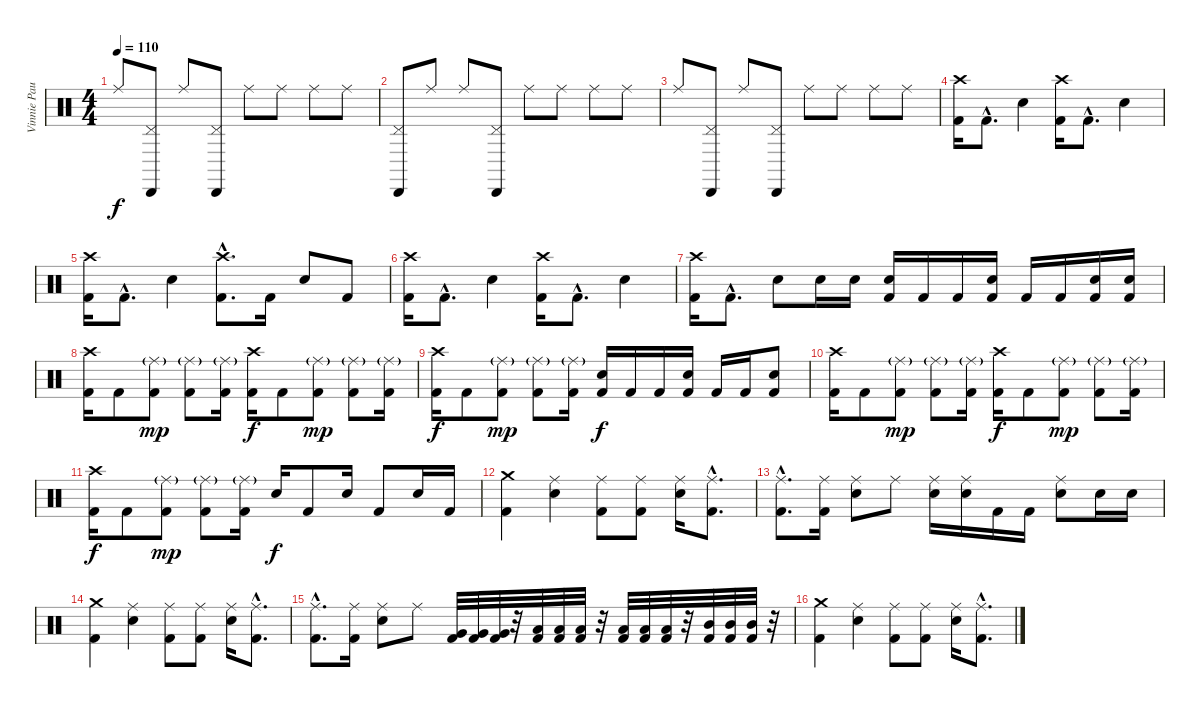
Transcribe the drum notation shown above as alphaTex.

\track ("Vinnie Paul" "Vinnie Pau") {instrument percussion}
\staff {score}
\articulation defaults
\ts (4 4)
\tempo 110
\clef neutral
\ks c "Ride (middle)".8{dy f}
("Cabasa (hit)" "Pedal Hi-Hat (hit)").8 "Ride (middle)".8 ("Cabasa (hit)" "Pedal Hi-Hat (hit)").8 "Ride (middle)".8 "Ride (middle)".8 "Ride (middle)".8 "Ride (middle)".8 |
("Cabasa (hit)" "Pedal Hi-Hat (hit)").8 "Ride (middle)".8 "Ride (middle)".8 ("Cabasa (hit)" "Pedal Hi-Hat (hit)").8 "Ride (middle)".8 "Ride (middle)".8 "Ride (middle)".8 "Ride (middle)".8 |
"Ride (middle)".8 ("Cabasa (hit)" "Pedal Hi-Hat (hit)").8 "Ride (middle)".8 ("Cabasa (hit)" "Pedal Hi-Hat (hit)").8 "Ride (middle)".8 "Ride (middle)".8 "Ride (middle)".8 "Ride (middle)".8 |
("Crash high (hit)" "Kick (hit) 2").16 "Kick (hit) 2"{hac}.8{d} "Electric Snare (hit)".4 ("Crash high (hit)" "Kick (hit) 2").16 "Kick (hit) 2"{hac}.8{d} "Electric Snare (hit)".4 |
("Crash high (hit)" "Kick (hit) 2").16 "Kick (hit) 2"{hac}.8{d} "Electric Snare (hit)".4 ("Crash high (hit)"{hac} "Kick (hit) 2"{hac}).8{d} "Kick (hit) 2".16 "Electric Snare (hit)".8 "Kick (hit) 2".8 |
("Crash high (hit)" "Kick (hit) 2").16 "Kick (hit) 2"{hac}.8{d} "Electric Snare (hit)".4 ("Crash high (hit)" "Kick (hit) 2").16 "Kick (hit) 2"{hac}.8{d} "Electric Snare (hit)".4 |
("Crash high (hit)" "Kick (hit) 2").16 "Kick (hit) 2"{hac}.8{d} "Electric Snare (hit)".8 "Electric Snare (hit)".16 "Electric Snare (hit)".16 ("Electric Snare (hit)" "Kick (hit) 2").16 "Kick (hit) 2".16 "Kick (hit) 2".16 ("Electric Snare (hit)" "Kick (hit) 2").16 "Kick (hit) 2".16 "Kick (hit) 2".16 ("Electric Snare (hit)" "Kick (hit) 2").16 ("Electric Snare (hit)" "Kick (hit) 2").16 |
("Crash high (hit)" "Kick (hit) 2").16 "Kick (hit) 2".8 ("Ride (middle)"{g} "Kick (hit) 2").8{dy mp} ("Ride (middle)"{g} "Kick (hit) 2").8 ("Ride (middle)"{g} "Kick (hit) 2").16 ("Crash high (hit)" "Kick (hit) 2").16{dy f} "Kick (hit) 2".8 ("Ride (middle)"{g} "Kick (hit) 2").8{dy mp} ("Ride (middle)"{g} "Kick (hit) 2").8 ("Ride (middle)"{g} "Kick (hit) 2").16 |
("Crash high (hit)" "Kick (hit) 2").16{dy f} "Kick (hit) 2".8 ("Ride (middle)"{g} "Kick (hit) 2").8{dy mp} ("Ride (middle)"{g} "Kick (hit) 2").8 ("Ride (middle)"{g} "Kick (hit) 2").16 ("Electric Snare (hit)" "Kick (hit) 2").16{dy f} "Kick (hit) 2".16 "Kick (hit) 2".16 ("Electric Snare (hit)" "Kick (hit) 2").16 "Kick (hit) 2".16 "Kick (hit) 2".16 ("Electric Snare (hit)" "Kick (hit) 2").8 |
("Crash high (hit)" "Kick (hit) 2").16 "Kick (hit) 2".8 ("Ride (middle)"{g} "Kick (hit) 2").8{dy mp} ("Ride (middle)"{g} "Kick (hit) 2").8 ("Ride (middle)"{g} "Kick (hit) 2").16 ("Crash high (hit)" "Kick (hit) 2").16{dy f} "Kick (hit) 2".8 ("Ride (middle)"{g} "Kick (hit) 2").8{dy mp} ("Ride (middle)"{g} "Kick (hit) 2").8 ("Ride (middle)"{g} "Kick (hit) 2").16 |
("Crash high (hit)" "Kick (hit) 2").16{dy f} "Kick (hit) 2".8 ("Ride (middle)"{g} "Kick (hit) 2").8{dy mp} ("Ride (middle)"{g} "Kick (hit) 2").8 ("Ride (middle)"{g} "Kick (hit) 2").16 "Electric Snare (hit)".16{dy f} "Kick (hit) 2".8 "Electric Snare (hit)".16 "Kick (hit) 2".8 "Electric Snare (hit)".16 "Kick (hit) 2".16 |
("Crash medium (hit)" "Kick (hit) 2").4 ("Electric Snare (hit)" "Ride (middle)").4 ("Ride (middle)" "Kick (hit) 2").8 ("Ride (middle)" "Kick (hit) 2").8 ("Electric Snare (hit)" "Ride (middle)").16 ("Ride (middle)"{hac} "Kick (hit) 2"{hac}).8{d} |
("Ride (middle)"{hac} "Kick (hit) 2"{hac}).8{d} ("Ride (middle)" "Kick (hit) 2").16 ("Electric Snare (hit)" "Ride (middle)").8 "Ride (middle)".8 ("Electric Snare (hit)" "Ride (middle)").16 ("Electric Snare (hit)" "Ride (middle)").16 "Kick (hit) 2".16 "Kick (hit) 2".16 ("Electric Snare (hit)" "Ride (middle)").8 "Electric Snare (hit)".16 "Electric Snare (hit)".16 |
("Crash medium (hit)" "Kick (hit) 2").4 ("Electric Snare (hit)" "Ride (middle)").4 ("Ride (middle)" "Kick (hit) 2").8 ("Ride (middle)" "Kick (hit) 2").8 ("Electric Snare (hit)" "Ride (middle)").16 ("Ride (middle)"{hac} "Kick (hit) 2"{hac}).8{d} |
("Ride (middle)"{hac} "Kick (hit) 2"{hac}).8{d} ("Ride (middle)" "Kick (hit) 2").16 ("Electric Snare (hit)" "Ride (middle)").8 "Ride (middle)".8 ("Very Low Tom (hit)" "Kick (hit) 2").32 ("Very Low Tom (hit)" "Kick (hit) 2").32 ("Very Low Tom (hit)" "Kick (hit) 2").32 r.32 ("Low Tom (hit)" "Kick (hit) 2").32 ("Low Tom (hit)" "Kick (hit) 2").32 ("Low Tom (hit)" "Kick (hit) 2").32 r.32 ("Low Tom (hit)" "Kick (hit) 2").32 ("Low Tom (hit)" "Kick (hit) 2").32 ("Low Tom (hit)" "Kick (hit) 2").32 r.32 ("Mid Tom (hit)" "Kick (hit) 2").32 ("Mid Tom (hit)" "Kick (hit) 2").32 ("Mid Tom (hit)" "Kick (hit) 2").32 r.32 |
("Crash medium (hit)" "Kick (hit) 2").4 ("Electric Snare (hit)" "Ride (middle)").4 ("Ride (middle)" "Kick (hit) 2").8 ("Ride (middle)" "Kick (hit) 2").8 ("Electric Snare (hit)" "Ride (middle)").16 ("Ride (middle)"{hac} "Kick (hit) 2"{hac}).8{d}
